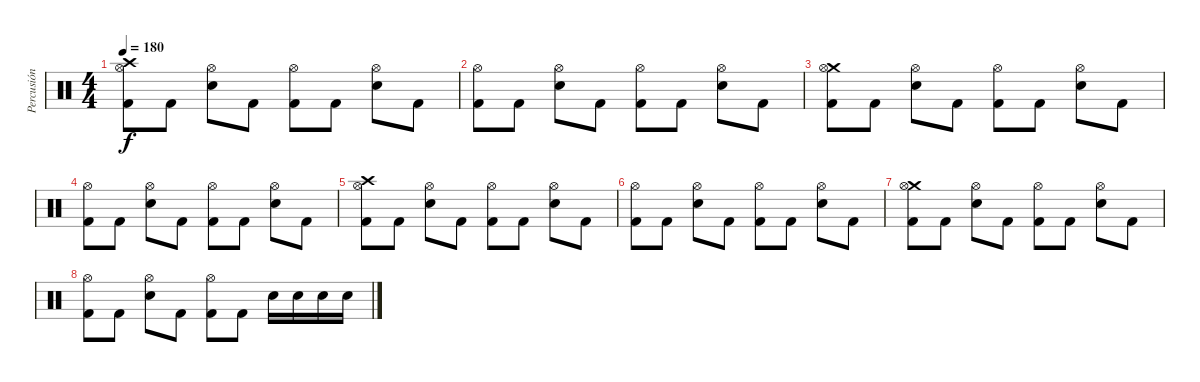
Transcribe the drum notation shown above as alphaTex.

\track ("Percusión" "Percusión") {instrument percussion}
\staff {score}
\articulation defaults
\ts (4 4)
\tempo 180
\clef neutral
\ks c
("Crash high (hit)" "Hi-Hat (open)" "Kick (hit) 2").8{dy f volume 6} "Kick (hit) 2".8 ("Hi-Hat (open)" "Electric Snare (hit)").8 "Kick (hit) 2".8 ("Hi-Hat (open)" "Kick (hit) 2").8 "Kick (hit) 2".8 ("Hi-Hat (open)" "Electric Snare (hit)").8 "Kick (hit) 2".8 |
("Hi-Hat (open)" "Kick (hit) 2").8 "Kick (hit) 2".8 ("Hi-Hat (open)" "Electric Snare (hit)").8 "Kick (hit) 2".8 ("Hi-Hat (open)" "Kick (hit) 2").8 "Kick (hit) 2".8 ("Hi-Hat (open)" "Electric Snare (hit)").8 "Kick (hit) 2".8 |
("Crash medium (hit)" "Hi-Hat (open)" "Kick (hit) 2").8 "Kick (hit) 2".8 ("Hi-Hat (open)" "Electric Snare (hit)").8 "Kick (hit) 2".8 ("Hi-Hat (open)" "Kick (hit) 2").8 "Kick (hit) 2".8 ("Hi-Hat (open)" "Electric Snare (hit)").8 "Kick (hit) 2".8 |
("Hi-Hat (open)" "Kick (hit) 2").8 "Kick (hit) 2".8 ("Hi-Hat (open)" "Electric Snare (hit)").8 "Kick (hit) 2".8 ("Hi-Hat (open)" "Kick (hit) 2").8 "Kick (hit) 2".8 ("Hi-Hat (open)" "Electric Snare (hit)").8 "Kick (hit) 2".8 |
("Crash high (hit)" "Hi-Hat (open)" "Kick (hit) 2").8{volume 0} "Kick (hit) 2".8 ("Hi-Hat (open)" "Electric Snare (hit)").8 "Kick (hit) 2".8 ("Hi-Hat (open)" "Kick (hit) 2").8 "Kick (hit) 2".8 ("Hi-Hat (open)" "Electric Snare (hit)").8 "Kick (hit) 2".8 |
("Hi-Hat (open)" "Kick (hit) 2").8 "Kick (hit) 2".8 ("Hi-Hat (open)" "Electric Snare (hit)").8 "Kick (hit) 2".8 ("Hi-Hat (open)" "Kick (hit) 2").8 "Kick (hit) 2".8 ("Hi-Hat (open)" "Electric Snare (hit)").8 "Kick (hit) 2".8 |
("Crash medium (hit)" "Hi-Hat (open)" "Kick (hit) 2").8 "Kick (hit) 2".8 ("Hi-Hat (open)" "Electric Snare (hit)").8 "Kick (hit) 2".8 ("Hi-Hat (open)" "Kick (hit) 2").8 "Kick (hit) 2".8 ("Hi-Hat (open)" "Electric Snare (hit)").8 "Kick (hit) 2".8 |
("Hi-Hat (open)" "Kick (hit) 2").8 "Kick (hit) 2".8 ("Hi-Hat (open)" "Electric Snare (hit)").8 "Kick (hit) 2".8 ("Hi-Hat (open)" "Kick (hit) 2").8 "Kick (hit) 2".8 "Electric Snare (hit)".16 "Electric Snare (hit)".16 "Electric Snare (hit)".16 "Electric Snare (hit)".16
